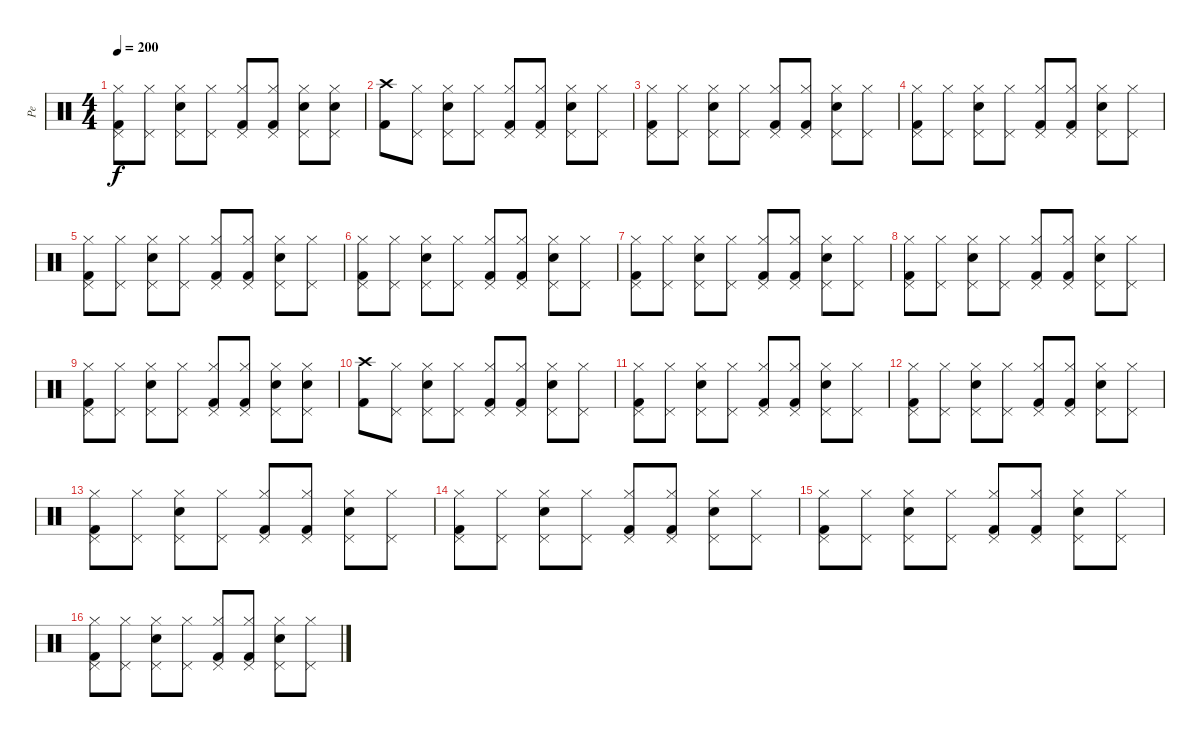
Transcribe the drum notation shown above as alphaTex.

\track ("Pe" "Pe") {instrument percussion}
\staff {score}
\articulation defaults
\ts (4 4)
\tempo 200
\clef neutral
\ks c
("Kick (hit) 2" "Hi-Hat (closed)" "Pedal Hi-Hat (hit)").8{dy f} ("Hi-Hat (closed)" "Pedal Hi-Hat (hit)").8 ("Electric Snare (hit)" "Hi-Hat (closed)" "Pedal Hi-Hat (hit)").8 ("Hi-Hat (closed)" "Pedal Hi-Hat (hit)").8 ("Kick (hit) 2" "Hi-Hat (closed)" "Pedal Hi-Hat (hit)").8 ("Kick (hit) 2" "Hi-Hat (closed)" "Pedal Hi-Hat (hit)").8 ("Electric Snare (hit)" "Hi-Hat (closed)" "Pedal Hi-Hat (hit)").8 ("Electric Snare (hit)" "Hi-Hat (closed)" "Pedal Hi-Hat (hit)").8 |
("Kick (hit) 2" "Crash high (hit)").8 ("Hi-Hat (closed)" "Pedal Hi-Hat (hit)").8 ("Electric Snare (hit)" "Hi-Hat (closed)" "Pedal Hi-Hat (hit)").8 ("Hi-Hat (closed)" "Pedal Hi-Hat (hit)").8 ("Kick (hit) 2" "Hi-Hat (closed)" "Pedal Hi-Hat (hit)").8 ("Kick (hit) 2" "Hi-Hat (closed)" "Pedal Hi-Hat (hit)").8 ("Electric Snare (hit)" "Hi-Hat (closed)" "Pedal Hi-Hat (hit)").8 ("Hi-Hat (closed)" "Pedal Hi-Hat (hit)").8 |
("Kick (hit) 2" "Hi-Hat (closed)" "Pedal Hi-Hat (hit)").8 ("Hi-Hat (closed)" "Pedal Hi-Hat (hit)").8 ("Electric Snare (hit)" "Hi-Hat (closed)" "Pedal Hi-Hat (hit)").8 ("Hi-Hat (closed)" "Pedal Hi-Hat (hit)").8 ("Kick (hit) 2" "Hi-Hat (closed)" "Pedal Hi-Hat (hit)").8 ("Kick (hit) 2" "Hi-Hat (closed)" "Pedal Hi-Hat (hit)").8 ("Electric Snare (hit)" "Hi-Hat (closed)" "Pedal Hi-Hat (hit)").8 ("Hi-Hat (closed)" "Pedal Hi-Hat (hit)").8 |
("Kick (hit) 2" "Hi-Hat (closed)" "Pedal Hi-Hat (hit)").8 ("Hi-Hat (closed)" "Pedal Hi-Hat (hit)").8 ("Electric Snare (hit)" "Hi-Hat (closed)" "Pedal Hi-Hat (hit)").8 ("Hi-Hat (closed)" "Pedal Hi-Hat (hit)").8 ("Kick (hit) 2" "Hi-Hat (closed)" "Pedal Hi-Hat (hit)").8 ("Kick (hit) 2" "Hi-Hat (closed)" "Pedal Hi-Hat (hit)").8 ("Electric Snare (hit)" "Hi-Hat (closed)" "Pedal Hi-Hat (hit)").8 ("Hi-Hat (closed)" "Pedal Hi-Hat (hit)").8 |
("Kick (hit) 2" "Hi-Hat (closed)" "Pedal Hi-Hat (hit)").8 ("Hi-Hat (closed)" "Pedal Hi-Hat (hit)").8 ("Electric Snare (hit)" "Hi-Hat (closed)" "Pedal Hi-Hat (hit)").8 ("Hi-Hat (closed)" "Pedal Hi-Hat (hit)").8 ("Kick (hit) 2" "Hi-Hat (closed)" "Pedal Hi-Hat (hit)").8 ("Kick (hit) 2" "Hi-Hat (closed)" "Pedal Hi-Hat (hit)").8 ("Electric Snare (hit)" "Hi-Hat (closed)" "Pedal Hi-Hat (hit)").8 ("Hi-Hat (closed)" "Pedal Hi-Hat (hit)").8 |
("Kick (hit) 2" "Hi-Hat (closed)" "Pedal Hi-Hat (hit)").8 ("Hi-Hat (closed)" "Pedal Hi-Hat (hit)").8 ("Electric Snare (hit)" "Hi-Hat (closed)" "Pedal Hi-Hat (hit)").8 ("Hi-Hat (closed)" "Pedal Hi-Hat (hit)").8 ("Kick (hit) 2" "Hi-Hat (closed)" "Pedal Hi-Hat (hit)").8 ("Kick (hit) 2" "Hi-Hat (closed)" "Pedal Hi-Hat (hit)").8 ("Electric Snare (hit)" "Hi-Hat (closed)" "Pedal Hi-Hat (hit)").8 ("Hi-Hat (closed)" "Pedal Hi-Hat (hit)").8 |
("Kick (hit) 2" "Hi-Hat (closed)" "Pedal Hi-Hat (hit)").8 ("Hi-Hat (closed)" "Pedal Hi-Hat (hit)").8 ("Electric Snare (hit)" "Hi-Hat (closed)" "Pedal Hi-Hat (hit)").8 ("Hi-Hat (closed)" "Pedal Hi-Hat (hit)").8 ("Kick (hit) 2" "Hi-Hat (closed)" "Pedal Hi-Hat (hit)").8 ("Kick (hit) 2" "Hi-Hat (closed)" "Pedal Hi-Hat (hit)").8 ("Electric Snare (hit)" "Hi-Hat (closed)" "Pedal Hi-Hat (hit)").8 ("Hi-Hat (closed)" "Pedal Hi-Hat (hit)").8 |
("Kick (hit) 2" "Hi-Hat (closed)" "Pedal Hi-Hat (hit)").8 ("Hi-Hat (closed)" "Pedal Hi-Hat (hit)").8 ("Electric Snare (hit)" "Hi-Hat (closed)" "Pedal Hi-Hat (hit)").8 ("Hi-Hat (closed)" "Pedal Hi-Hat (hit)").8 ("Kick (hit) 2" "Hi-Hat (closed)" "Pedal Hi-Hat (hit)").8 ("Kick (hit) 2" "Hi-Hat (closed)" "Pedal Hi-Hat (hit)").8 ("Electric Snare (hit)" "Hi-Hat (closed)" "Pedal Hi-Hat (hit)").8 ("Hi-Hat (closed)" "Pedal Hi-Hat (hit)").8 |
("Kick (hit) 2" "Hi-Hat (closed)" "Pedal Hi-Hat (hit)").8 ("Hi-Hat (closed)" "Pedal Hi-Hat (hit)").8 ("Electric Snare (hit)" "Hi-Hat (closed)" "Pedal Hi-Hat (hit)").8 ("Hi-Hat (closed)" "Pedal Hi-Hat (hit)").8 ("Kick (hit) 2" "Hi-Hat (closed)" "Pedal Hi-Hat (hit)").8 ("Kick (hit) 2" "Hi-Hat (closed)" "Pedal Hi-Hat (hit)").8 ("Electric Snare (hit)" "Hi-Hat (closed)" "Pedal Hi-Hat (hit)").8 ("Electric Snare (hit)" "Hi-Hat (closed)" "Pedal Hi-Hat (hit)").8 |
("Kick (hit) 2" "Crash high (hit)").8 ("Hi-Hat (closed)" "Pedal Hi-Hat (hit)").8 ("Electric Snare (hit)" "Hi-Hat (closed)" "Pedal Hi-Hat (hit)").8 ("Hi-Hat (closed)" "Pedal Hi-Hat (hit)").8 ("Kick (hit) 2" "Hi-Hat (closed)" "Pedal Hi-Hat (hit)").8 ("Kick (hit) 2" "Hi-Hat (closed)" "Pedal Hi-Hat (hit)").8 ("Electric Snare (hit)" "Hi-Hat (closed)" "Pedal Hi-Hat (hit)").8 ("Hi-Hat (closed)" "Pedal Hi-Hat (hit)").8 |
("Kick (hit) 2" "Hi-Hat (closed)" "Pedal Hi-Hat (hit)").8 ("Hi-Hat (closed)" "Pedal Hi-Hat (hit)").8 ("Electric Snare (hit)" "Hi-Hat (closed)" "Pedal Hi-Hat (hit)").8 ("Hi-Hat (closed)" "Pedal Hi-Hat (hit)").8 ("Kick (hit) 2" "Hi-Hat (closed)" "Pedal Hi-Hat (hit)").8 ("Kick (hit) 2" "Hi-Hat (closed)" "Pedal Hi-Hat (hit)").8 ("Electric Snare (hit)" "Hi-Hat (closed)" "Pedal Hi-Hat (hit)").8 ("Hi-Hat (closed)" "Pedal Hi-Hat (hit)").8 |
("Kick (hit) 2" "Hi-Hat (closed)" "Pedal Hi-Hat (hit)").8 ("Hi-Hat (closed)" "Pedal Hi-Hat (hit)").8 ("Electric Snare (hit)" "Hi-Hat (closed)" "Pedal Hi-Hat (hit)").8 ("Hi-Hat (closed)" "Pedal Hi-Hat (hit)").8 ("Kick (hit) 2" "Hi-Hat (closed)" "Pedal Hi-Hat (hit)").8 ("Kick (hit) 2" "Hi-Hat (closed)" "Pedal Hi-Hat (hit)").8 ("Electric Snare (hit)" "Hi-Hat (closed)" "Pedal Hi-Hat (hit)").8 ("Hi-Hat (closed)" "Pedal Hi-Hat (hit)").8 |
("Kick (hit) 2" "Hi-Hat (closed)" "Pedal Hi-Hat (hit)").8 ("Hi-Hat (closed)" "Pedal Hi-Hat (hit)").8 ("Electric Snare (hit)" "Hi-Hat (closed)" "Pedal Hi-Hat (hit)").8 ("Hi-Hat (closed)" "Pedal Hi-Hat (hit)").8 ("Kick (hit) 2" "Hi-Hat (closed)" "Pedal Hi-Hat (hit)").8 ("Kick (hit) 2" "Hi-Hat (closed)" "Pedal Hi-Hat (hit)").8 ("Electric Snare (hit)" "Hi-Hat (closed)" "Pedal Hi-Hat (hit)").8 ("Hi-Hat (closed)" "Pedal Hi-Hat (hit)").8 |
("Kick (hit) 2" "Hi-Hat (closed)" "Pedal Hi-Hat (hit)").8 ("Hi-Hat (closed)" "Pedal Hi-Hat (hit)").8 ("Electric Snare (hit)" "Hi-Hat (closed)" "Pedal Hi-Hat (hit)").8 ("Hi-Hat (closed)" "Pedal Hi-Hat (hit)").8 ("Kick (hit) 2" "Hi-Hat (closed)" "Pedal Hi-Hat (hit)").8 ("Kick (hit) 2" "Hi-Hat (closed)" "Pedal Hi-Hat (hit)").8 ("Electric Snare (hit)" "Hi-Hat (closed)" "Pedal Hi-Hat (hit)").8 ("Hi-Hat (closed)" "Pedal Hi-Hat (hit)").8 |
("Kick (hit) 2" "Hi-Hat (closed)" "Pedal Hi-Hat (hit)").8 ("Hi-Hat (closed)" "Pedal Hi-Hat (hit)").8 ("Electric Snare (hit)" "Hi-Hat (closed)" "Pedal Hi-Hat (hit)").8 ("Hi-Hat (closed)" "Pedal Hi-Hat (hit)").8 ("Kick (hit) 2" "Hi-Hat (closed)" "Pedal Hi-Hat (hit)").8 ("Kick (hit) 2" "Hi-Hat (closed)" "Pedal Hi-Hat (hit)").8 ("Electric Snare (hit)" "Hi-Hat (closed)" "Pedal Hi-Hat (hit)").8 ("Hi-Hat (closed)" "Pedal Hi-Hat (hit)").8 |
("Kick (hit) 2" "Hi-Hat (closed)" "Pedal Hi-Hat (hit)").8 ("Hi-Hat (closed)" "Pedal Hi-Hat (hit)").8 ("Electric Snare (hit)" "Hi-Hat (closed)" "Pedal Hi-Hat (hit)").8 ("Hi-Hat (closed)" "Pedal Hi-Hat (hit)").8 ("Kick (hit) 2" "Hi-Hat (closed)" "Pedal Hi-Hat (hit)").8 ("Kick (hit) 2" "Hi-Hat (closed)" "Pedal Hi-Hat (hit)").8 ("Electric Snare (hit)" "Hi-Hat (closed)" "Pedal Hi-Hat (hit)").8 ("Hi-Hat (closed)" "Pedal Hi-Hat (hit)").8
